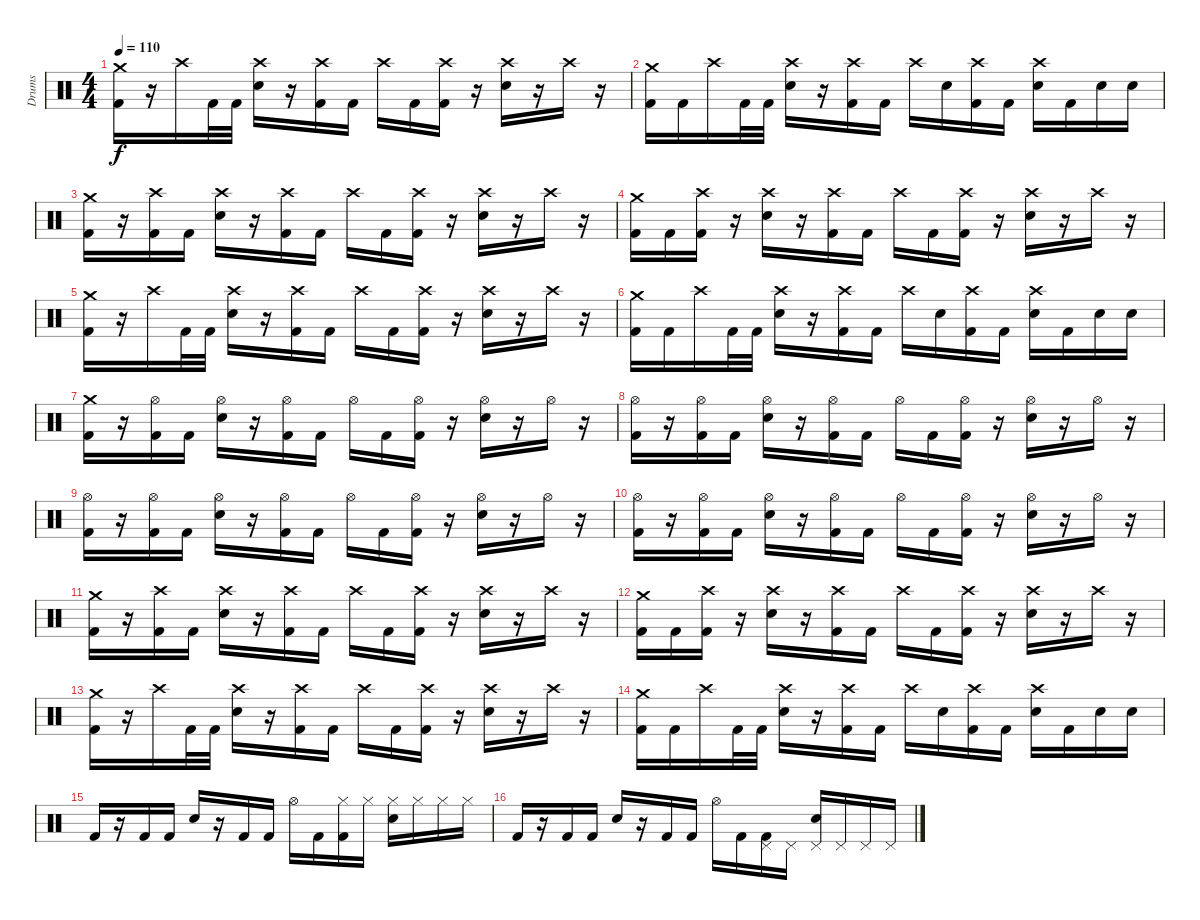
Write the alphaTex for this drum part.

\track ("Drums" "Drums") {mute instrument percussion}
\staff {score}
\articulation defaults
\ts (4 4)
\tempo 110
\clef neutral
\ks c
("Crash medium (hit)" "Kick (hit) 2").16{dy f} r.16 "Crash high (hit)".16 "Kick (hit) 2".32 "Kick (hit) 2".32 ("Crash high (hit)" "Electric Snare (hit)").16 r.16 ("Crash high (hit)" "Kick (hit) 2").16 "Kick (hit) 2".16 "Crash high (hit)".16 "Kick (hit) 2".16 ("Crash high (hit)" "Kick (hit) 2").16 r.16 ("Crash high (hit)" "Electric Snare (hit)").16 r.16 "Crash high (hit)".16 r.16 |
("Crash medium (hit)" "Kick (hit) 2").16 "Kick (hit) 2".16 "Crash high (hit)".16 "Kick (hit) 2".32 "Kick (hit) 2".32 ("Crash high (hit)" "Electric Snare (hit)").16 r.16 ("Crash high (hit)" "Kick (hit) 2").16 "Kick (hit) 2".16 "Crash high (hit)".16 "Electric Snare (hit)".16 ("Crash high (hit)" "Kick (hit) 2").16 "Kick (hit) 2".16 ("Crash high (hit)" "Electric Snare (hit)").16 "Kick (hit) 2".16 "Electric Snare (hit)".16 "Electric Snare (hit)".16 |
("Crash medium (hit)" "Kick (hit) 2").16 r.16 ("Crash high (hit)" "Kick (hit) 2").16 "Kick (hit) 2".16 ("Crash high (hit)" "Electric Snare (hit)").16 r.16 ("Crash high (hit)" "Kick (hit) 2").16 "Kick (hit) 2".16 "Crash high (hit)".16 "Kick (hit) 2".16 ("Crash high (hit)" "Kick (hit) 2").16 r.16 ("Crash high (hit)" "Electric Snare (hit)").16 r.16 "Crash high (hit)".16 r.16 |
("Crash medium (hit)" "Kick (hit) 2").16 "Kick (hit) 2".16 ("Crash high (hit)" "Kick (hit) 2").16 r.16 ("Crash high (hit)" "Electric Snare (hit)").16 r.16 ("Crash high (hit)" "Kick (hit) 2").16 "Kick (hit) 2".16 "Crash high (hit)".16 "Kick (hit) 2".16 ("Crash high (hit)" "Kick (hit) 2").16 r.16 ("Crash high (hit)" "Electric Snare (hit)").16 r.16 "Crash high (hit)".16 r.16 |
("Crash medium (hit)" "Kick (hit) 2").16 r.16 "Crash high (hit)".16 "Kick (hit) 2".32 "Kick (hit) 2".32 ("Crash high (hit)" "Electric Snare (hit)").16 r.16 ("Crash high (hit)" "Kick (hit) 2").16 "Kick (hit) 2".16 "Crash high (hit)".16 "Kick (hit) 2".16 ("Crash high (hit)" "Kick (hit) 2").16 r.16 ("Crash high (hit)" "Electric Snare (hit)").16 r.16 "Crash high (hit)".16 r.16 |
("Crash medium (hit)" "Kick (hit) 2").16 "Kick (hit) 2".16 "Crash high (hit)".16 "Kick (hit) 2".32 "Kick (hit) 2".32 ("Crash high (hit)" "Electric Snare (hit)").16 r.16 ("Crash high (hit)" "Kick (hit) 2").16 "Kick (hit) 2".16 "Crash high (hit)".16 "Electric Snare (hit)".16 ("Crash high (hit)" "Kick (hit) 2").16 "Kick (hit) 2".16 ("Crash high (hit)" "Electric Snare (hit)").16 "Kick (hit) 2".16 "Electric Snare (hit)".16 "Electric Snare (hit)".16 |
("Crash medium (hit)" "Kick (hit) 2").16 r.16 ("Hi-Hat (open)" "Kick (hit) 2").16 "Kick (hit) 2".16 ("Hi-Hat (open)" "Electric Snare (hit)").16 r.16 ("Hi-Hat (open)" "Kick (hit) 2").16 "Kick (hit) 2".16 "Hi-Hat (open)".16 "Kick (hit) 2".16 ("Hi-Hat (open)" "Kick (hit) 2").16 r.16 ("Hi-Hat (open)" "Electric Snare (hit)").16 r.16 "Hi-Hat (open)".16 r.16 |
("Hi-Hat (open)" "Kick (hit) 2").16 r.16 ("Hi-Hat (open)" "Kick (hit) 2").16 "Kick (hit) 2".16 ("Hi-Hat (open)" "Electric Snare (hit)").16 r.16 ("Hi-Hat (open)" "Kick (hit) 2").16 "Kick (hit) 2".16 "Hi-Hat (open)".16 "Kick (hit) 2".16 ("Hi-Hat (open)" "Kick (hit) 2").16 r.16 ("Hi-Hat (open)" "Electric Snare (hit)").16 r.16 "Hi-Hat (open)".16 r.16 |
("Hi-Hat (open)" "Kick (hit) 2").16 r.16 ("Hi-Hat (open)" "Kick (hit) 2").16 "Kick (hit) 2".16 ("Hi-Hat (open)" "Electric Snare (hit)").16 r.16 ("Hi-Hat (open)" "Kick (hit) 2").16 "Kick (hit) 2".16 "Hi-Hat (open)".16 "Kick (hit) 2".16 ("Hi-Hat (open)" "Kick (hit) 2").16 r.16 ("Hi-Hat (open)" "Electric Snare (hit)").16 r.16 "Hi-Hat (open)".16 r.16 |
("Hi-Hat (open)" "Kick (hit) 2").16 r.16 ("Hi-Hat (open)" "Kick (hit) 2").16 "Kick (hit) 2".16 ("Hi-Hat (open)" "Electric Snare (hit)").16 r.16 ("Hi-Hat (open)" "Kick (hit) 2").16 "Kick (hit) 2".16 "Hi-Hat (open)".16 "Kick (hit) 2".16 ("Hi-Hat (open)" "Kick (hit) 2").16 r.16 ("Hi-Hat (open)" "Electric Snare (hit)").16 r.16 "Hi-Hat (open)".16 r.16 |
("Crash medium (hit)" "Kick (hit) 2").16 r.16 ("Crash high (hit)" "Kick (hit) 2").16 "Kick (hit) 2".16 ("Crash high (hit)" "Electric Snare (hit)").16 r.16 ("Crash high (hit)" "Kick (hit) 2").16 "Kick (hit) 2".16 "Crash high (hit)".16 "Kick (hit) 2".16 ("Crash high (hit)" "Kick (hit) 2").16 r.16 ("Crash high (hit)" "Electric Snare (hit)").16 r.16 "Crash high (hit)".16 r.16 |
("Crash medium (hit)" "Kick (hit) 2").16 "Kick (hit) 2".16 ("Crash high (hit)" "Kick (hit) 2").16 r.16 ("Crash high (hit)" "Electric Snare (hit)").16 r.16 ("Crash high (hit)" "Kick (hit) 2").16 "Kick (hit) 2".16 "Crash high (hit)".16 "Kick (hit) 2".16 ("Crash high (hit)" "Kick (hit) 2").16 r.16 ("Crash high (hit)" "Electric Snare (hit)").16 r.16 "Crash high (hit)".16 r.16 |
("Crash medium (hit)" "Kick (hit) 2").16 r.16 "Crash high (hit)".16 "Kick (hit) 2".32 "Kick (hit) 2".32 ("Crash high (hit)" "Electric Snare (hit)").16 r.16 ("Crash high (hit)" "Kick (hit) 2").16 "Kick (hit) 2".16 "Crash high (hit)".16 "Kick (hit) 2".16 ("Crash high (hit)" "Kick (hit) 2").16 r.16 ("Crash high (hit)" "Electric Snare (hit)").16 r.16 "Crash high (hit)".16 r.16 |
("Crash medium (hit)" "Kick (hit) 2").16 "Kick (hit) 2".16 "Crash high (hit)".16 "Kick (hit) 2".32 "Kick (hit) 2".32 ("Crash high (hit)" "Electric Snare (hit)").16 r.16 ("Crash high (hit)" "Kick (hit) 2").16 "Kick (hit) 2".16 "Crash high (hit)".16 "Electric Snare (hit)".16 ("Crash high (hit)" "Kick (hit) 2").16 "Kick (hit) 2".16 ("Crash high (hit)" "Electric Snare (hit)").16 "Kick (hit) 2".16 "Electric Snare (hit)".16 "Electric Snare (hit)".16 |
"Kick (hit) 2".16 r.16 "Kick (hit) 2".16 "Kick (hit) 2".16 "Electric Snare (hit)".16 r.16 "Kick (hit) 2".16 "Kick (hit) 2".16 "Hi-Hat (open)".16 "Kick (hit) 2".16 ("Hi-Hat (closed)" "Kick (hit) 2").16 "Hi-Hat (closed)".16 ("Hi-Hat (closed)" "Electric Snare (hit)").16 "Hi-Hat (closed)".16 "Hi-Hat (closed)".16 "Hi-Hat (closed)".16 |
"Kick (hit) 2".16 r.16 "Kick (hit) 2".16 "Kick (hit) 2".16 "Electric Snare (hit)".16 r.16 "Kick (hit) 2".16 "Kick (hit) 2".16 "Hi-Hat (open)".16 "Kick (hit) 2".16 ("Pedal Hi-Hat (hit)" "Kick (hit) 2").16 "Pedal Hi-Hat (hit)".16 ("Pedal Hi-Hat (hit)" "Electric Snare (hit)").16 "Pedal Hi-Hat (hit)".16 "Pedal Hi-Hat (hit)".16 "Pedal Hi-Hat (hit)".16
